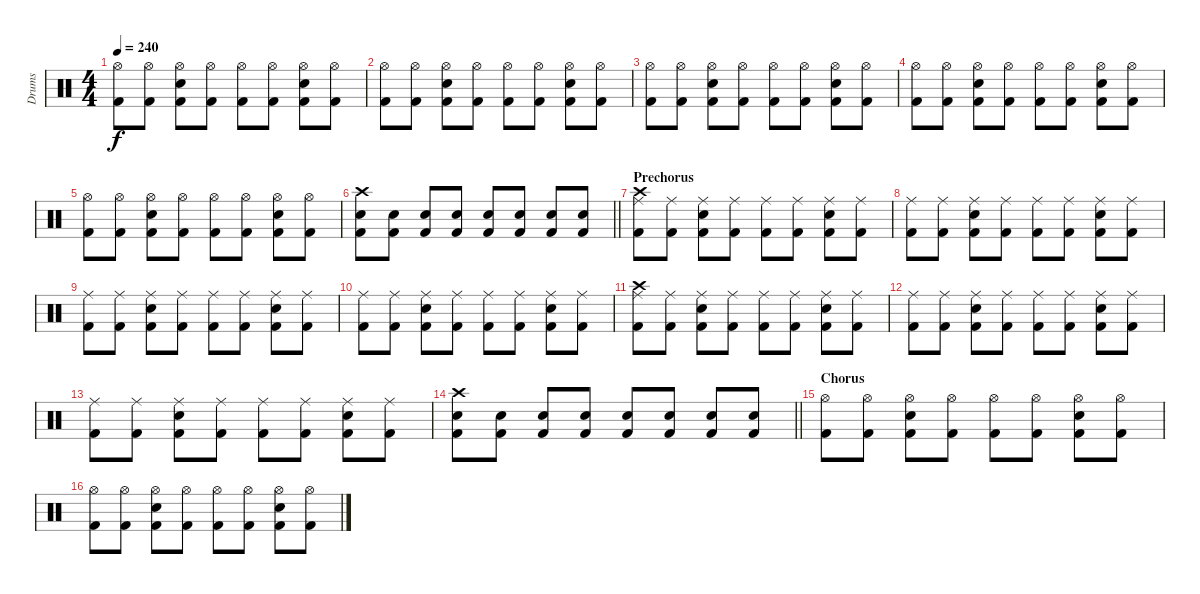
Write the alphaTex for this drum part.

\track ("Drums" "Drums") {instrument percussion}
\staff {score}
\articulation defaults
\ts (4 4)
\tempo 240
\clef neutral
\ks c
("Kick (hit) 2" "Hi-Hat (open)").8{dy f} ("Kick (hit) 2" "Hi-Hat (open)").8 ("Kick (hit) 2" "Snare (hit) 2" "Hi-Hat (open)").8 ("Kick (hit) 2" "Hi-Hat (open)").8 ("Kick (hit) 2" "Hi-Hat (open)").8 ("Kick (hit) 2" "Hi-Hat (open)").8 ("Kick (hit) 2" "Snare (hit) 2" "Hi-Hat (open)").8 ("Kick (hit) 2" "Hi-Hat (open)").8 |
("Kick (hit) 2" "Hi-Hat (open)").8 ("Kick (hit) 2" "Hi-Hat (open)").8 ("Kick (hit) 2" "Snare (hit) 2" "Hi-Hat (open)").8 ("Kick (hit) 2" "Hi-Hat (open)").8 ("Kick (hit) 2" "Hi-Hat (open)").8 ("Kick (hit) 2" "Hi-Hat (open)").8 ("Kick (hit) 2" "Snare (hit) 2" "Hi-Hat (open)").8 ("Kick (hit) 2" "Hi-Hat (open)").8 |
("Kick (hit) 2" "Hi-Hat (open)").8 ("Kick (hit) 2" "Hi-Hat (open)").8 ("Kick (hit) 2" "Snare (hit) 2" "Hi-Hat (open)").8 ("Kick (hit) 2" "Hi-Hat (open)").8 ("Kick (hit) 2" "Hi-Hat (open)").8 ("Kick (hit) 2" "Hi-Hat (open)").8 ("Kick (hit) 2" "Snare (hit) 2" "Hi-Hat (open)").8 ("Kick (hit) 2" "Hi-Hat (open)").8 |
("Kick (hit) 2" "Hi-Hat (open)").8 ("Kick (hit) 2" "Hi-Hat (open)").8 ("Kick (hit) 2" "Snare (hit) 2" "Hi-Hat (open)").8 ("Kick (hit) 2" "Hi-Hat (open)").8 ("Kick (hit) 2" "Hi-Hat (open)").8 ("Kick (hit) 2" "Hi-Hat (open)").8 ("Kick (hit) 2" "Snare (hit) 2" "Hi-Hat (open)").8 ("Kick (hit) 2" "Hi-Hat (open)").8 |
("Kick (hit) 2" "Hi-Hat (open)").8 ("Kick (hit) 2" "Hi-Hat (open)").8 ("Kick (hit) 2" "Snare (hit) 2" "Hi-Hat (open)").8 ("Kick (hit) 2" "Hi-Hat (open)").8 ("Kick (hit) 2" "Hi-Hat (open)").8 ("Kick (hit) 2" "Hi-Hat (open)").8 ("Kick (hit) 2" "Snare (hit) 2" "Hi-Hat (open)").8 ("Kick (hit) 2" "Hi-Hat (open)").8 |
\barLineRight lightlight
("Kick (hit) 2" "Snare (hit) 2" "Crash high (hit)").8 ("Kick (hit) 2" "Snare (hit) 2").8 ("Kick (hit) 2" "Snare (hit) 2").8 ("Kick (hit) 2" "Snare (hit) 2").8 ("Kick (hit) 2" "Snare (hit) 2").8 ("Kick (hit) 2" "Snare (hit) 2").8 ("Kick (hit) 2" "Snare (hit) 2").8 ("Kick (hit) 2" "Snare (hit) 2").8 |
\section ("" "Prechorus")
("Crash high (hit)" "Ride (middle)" "Kick (hit) 2").8 ("Ride (middle)" "Kick (hit) 2").8 ("Ride (middle)" "Snare (hit) 2" "Kick (hit) 2").8 ("Ride (middle)" "Kick (hit) 2").8 ("Ride (middle)" "Kick (hit) 2").8 ("Ride (middle)" "Kick (hit) 2").8 ("Ride (middle)" "Snare (hit) 2" "Kick (hit) 2").8 ("Ride (middle)" "Kick (hit) 2").8 |
("Ride (middle)" "Kick (hit) 2").8 ("Ride (middle)" "Kick (hit) 2").8 ("Ride (middle)" "Snare (hit) 2" "Kick (hit) 2").8 ("Ride (middle)" "Kick (hit) 2").8 ("Ride (middle)" "Kick (hit) 2").8 ("Ride (middle)" "Kick (hit) 2").8 ("Ride (middle)" "Snare (hit) 2" "Kick (hit) 2").8 ("Ride (middle)" "Kick (hit) 2").8 |
("Ride (middle)" "Kick (hit) 2").8 ("Ride (middle)" "Kick (hit) 2").8 ("Ride (middle)" "Snare (hit) 2" "Kick (hit) 2").8 ("Ride (middle)" "Kick (hit) 2").8 ("Ride (middle)" "Kick (hit) 2").8 ("Ride (middle)" "Kick (hit) 2").8 ("Ride (middle)" "Snare (hit) 2" "Kick (hit) 2").8 ("Ride (middle)" "Kick (hit) 2").8 |
("Ride (middle)" "Kick (hit) 2").8 ("Ride (middle)" "Kick (hit) 2").8 ("Ride (middle)" "Snare (hit) 2" "Kick (hit) 2").8 ("Ride (middle)" "Kick (hit) 2").8 ("Ride (middle)" "Kick (hit) 2").8 ("Ride (middle)" "Kick (hit) 2").8 ("Ride (middle)" "Snare (hit) 2" "Kick (hit) 2").8 ("Ride (middle)" "Kick (hit) 2").8 |
("Crash high (hit)" "Ride (middle)" "Kick (hit) 2").8 ("Ride (middle)" "Kick (hit) 2").8 ("Ride (middle)" "Snare (hit) 2" "Kick (hit) 2").8 ("Ride (middle)" "Kick (hit) 2").8 ("Ride (middle)" "Kick (hit) 2").8 ("Ride (middle)" "Kick (hit) 2").8 ("Ride (middle)" "Snare (hit) 2" "Kick (hit) 2").8 ("Ride (middle)" "Kick (hit) 2").8 |
("Ride (middle)" "Kick (hit) 2").8 ("Ride (middle)" "Kick (hit) 2").8 ("Ride (middle)" "Snare (hit) 2" "Kick (hit) 2").8 ("Ride (middle)" "Kick (hit) 2").8 ("Ride (middle)" "Kick (hit) 2").8 ("Ride (middle)" "Kick (hit) 2").8 ("Ride (middle)" "Snare (hit) 2" "Kick (hit) 2").8 ("Ride (middle)" "Kick (hit) 2").8 |
("Ride (middle)" "Kick (hit) 2").8 ("Ride (middle)" "Kick (hit) 2").8 ("Ride (middle)" "Snare (hit) 2" "Kick (hit) 2").8 ("Ride (middle)" "Kick (hit) 2").8 ("Ride (middle)" "Kick (hit) 2").8 ("Ride (middle)" "Kick (hit) 2").8 ("Ride (middle)" "Snare (hit) 2" "Kick (hit) 2").8 ("Ride (middle)" "Kick (hit) 2").8 |
\barLineRight lightlight
("Crash high (hit)" "Snare (hit) 2" "Kick (hit) 2").8 ("Snare (hit) 2" "Kick (hit) 2").8 ("Snare (hit) 2" "Kick (hit) 2").8 ("Snare (hit) 2" "Kick (hit) 2").8 ("Snare (hit) 2" "Kick (hit) 2").8 ("Snare (hit) 2" "Kick (hit) 2").8 ("Snare (hit) 2" "Kick (hit) 2").8 ("Snare (hit) 2" "Kick (hit) 2").8 |
\section ("" "Chorus")
("Kick (hit) 2" "Hi-Hat (open)").8 ("Kick (hit) 2" "Hi-Hat (open)").8 ("Kick (hit) 2" "Snare (hit) 2" "Hi-Hat (open)").8 ("Kick (hit) 2" "Hi-Hat (open)").8 ("Kick (hit) 2" "Hi-Hat (open)").8 ("Kick (hit) 2" "Hi-Hat (open)").8 ("Kick (hit) 2" "Snare (hit) 2" "Hi-Hat (open)").8 ("Kick (hit) 2" "Hi-Hat (open)").8 |
("Kick (hit) 2" "Hi-Hat (open)").8 ("Kick (hit) 2" "Hi-Hat (open)").8 ("Kick (hit) 2" "Snare (hit) 2" "Hi-Hat (open)").8 ("Kick (hit) 2" "Hi-Hat (open)").8 ("Kick (hit) 2" "Hi-Hat (open)").8 ("Kick (hit) 2" "Hi-Hat (open)").8 ("Kick (hit) 2" "Snare (hit) 2" "Hi-Hat (open)").8 ("Kick (hit) 2" "Hi-Hat (open)").8
